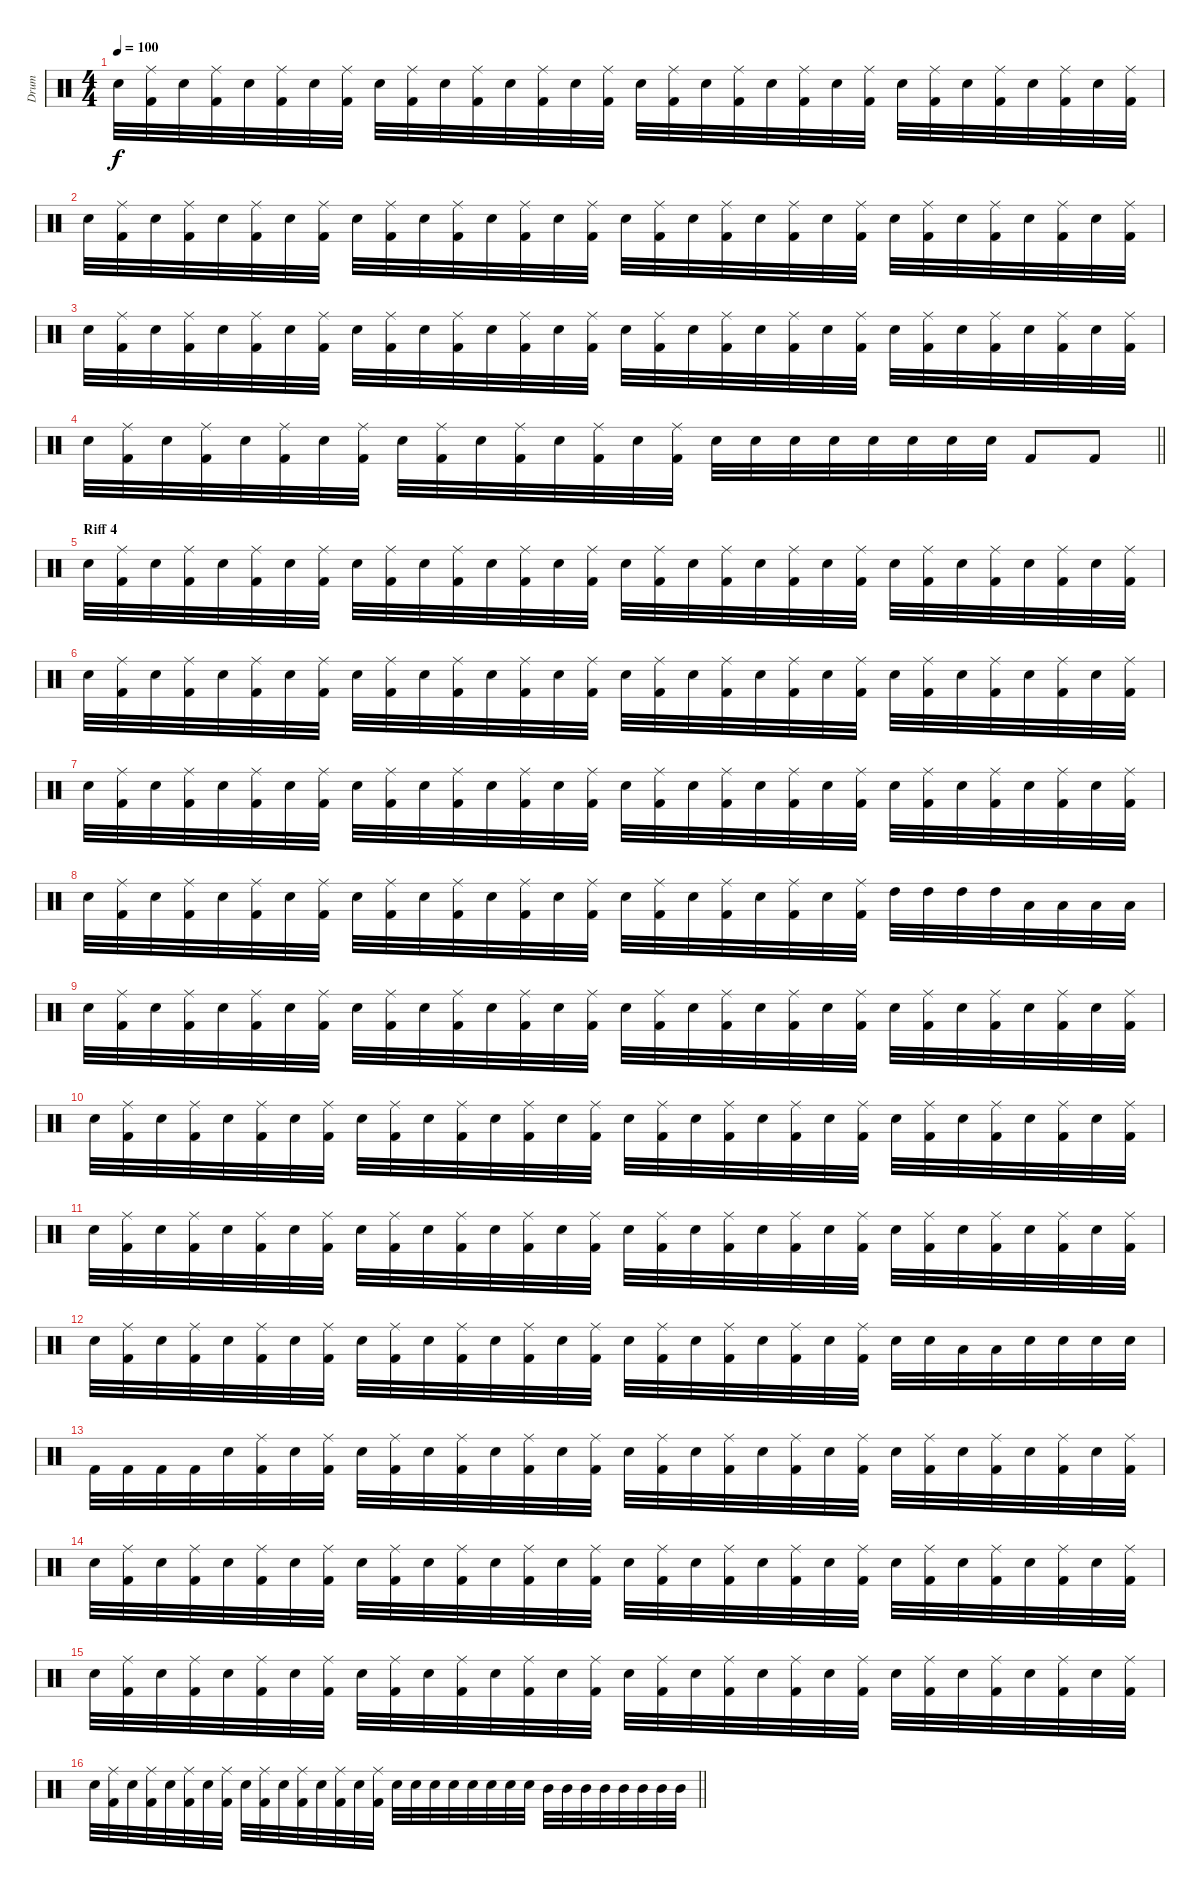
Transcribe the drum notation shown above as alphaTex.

\track ("Drum" "Drum") {instrument percussion}
\staff {score}
\articulation defaults
\ts (4 4)
\tempo 100
\clef neutral
\ks c "Electric Snare (hit)".32{dy f}
("Ride (middle)" "Kick (hit) 2").32 "Electric Snare (hit)".32 ("Ride (middle)" "Kick (hit) 2").32 "Electric Snare (hit)".32 ("Ride (middle)" "Kick (hit) 2").32 "Electric Snare (hit)".32 ("Ride (middle)" "Kick (hit) 2").32 "Electric Snare (hit)".32 ("Ride (middle)" "Kick (hit) 2").32 "Electric Snare (hit)".32 ("Ride (middle)" "Kick (hit) 2").32 "Electric Snare (hit)".32 ("Ride (middle)" "Kick (hit) 2").32 "Electric Snare (hit)".32 ("Ride (middle)" "Kick (hit) 2").32 "Electric Snare (hit)".32 ("Ride (middle)" "Kick (hit) 2").32 "Electric Snare (hit)".32 ("Ride (middle)" "Kick (hit) 2").32 "Electric Snare (hit)".32 ("Ride (middle)" "Kick (hit) 2").32 "Electric Snare (hit)".32 ("Ride (middle)" "Kick (hit) 2").32 "Electric Snare (hit)".32 ("Ride (middle)" "Kick (hit) 2").32 "Electric Snare (hit)".32 ("Ride (middle)" "Kick (hit) 2").32 "Electric Snare (hit)".32 ("Ride (middle)" "Kick (hit) 2").32 "Electric Snare (hit)".32 ("Ride (middle)" "Kick (hit) 2").32 |
"Electric Snare (hit)".32 ("Ride (middle)" "Kick (hit) 2").32 "Electric Snare (hit)".32 ("Ride (middle)" "Kick (hit) 2").32 "Electric Snare (hit)".32 ("Ride (middle)" "Kick (hit) 2").32 "Electric Snare (hit)".32 ("Ride (middle)" "Kick (hit) 2").32 "Electric Snare (hit)".32 ("Ride (middle)" "Kick (hit) 2").32 "Electric Snare (hit)".32 ("Ride (middle)" "Kick (hit) 2").32 "Electric Snare (hit)".32 ("Ride (middle)" "Kick (hit) 2").32 "Electric Snare (hit)".32 ("Ride (middle)" "Kick (hit) 2").32 "Electric Snare (hit)".32 ("Ride (middle)" "Kick (hit) 2").32 "Electric Snare (hit)".32 ("Ride (middle)" "Kick (hit) 2").32 "Electric Snare (hit)".32 ("Ride (middle)" "Kick (hit) 2").32 "Electric Snare (hit)".32 ("Ride (middle)" "Kick (hit) 2").32 "Electric Snare (hit)".32 ("Ride (middle)" "Kick (hit) 2").32 "Electric Snare (hit)".32 ("Ride (middle)" "Kick (hit) 2").32 "Electric Snare (hit)".32 ("Ride (middle)" "Kick (hit) 2").32 "Electric Snare (hit)".32 ("Ride (middle)" "Kick (hit) 2").32 |
"Electric Snare (hit)".32 ("Ride (middle)" "Kick (hit) 2").32 "Electric Snare (hit)".32 ("Ride (middle)" "Kick (hit) 2").32 "Electric Snare (hit)".32 ("Ride (middle)" "Kick (hit) 2").32 "Electric Snare (hit)".32 ("Ride (middle)" "Kick (hit) 2").32 "Electric Snare (hit)".32 ("Ride (middle)" "Kick (hit) 2").32 "Electric Snare (hit)".32 ("Ride (middle)" "Kick (hit) 2").32 "Electric Snare (hit)".32 ("Ride (middle)" "Kick (hit) 2").32 "Electric Snare (hit)".32 ("Ride (middle)" "Kick (hit) 2").32 "Electric Snare (hit)".32 ("Ride (middle)" "Kick (hit) 2").32 "Electric Snare (hit)".32 ("Ride (middle)" "Kick (hit) 2").32 "Electric Snare (hit)".32 ("Ride (middle)" "Kick (hit) 2").32 "Electric Snare (hit)".32 ("Ride (middle)" "Kick (hit) 2").32 "Electric Snare (hit)".32 ("Ride (middle)" "Kick (hit) 2").32 "Electric Snare (hit)".32 ("Ride (middle)" "Kick (hit) 2").32 "Electric Snare (hit)".32 ("Ride (middle)" "Kick (hit) 2").32 "Electric Snare (hit)".32 ("Ride (middle)" "Kick (hit) 2").32 |
\barLineRight lightlight "Electric Snare (hit)".32
("Ride (middle)" "Kick (hit) 2").32 "Electric Snare (hit)".32 ("Ride (middle)" "Kick (hit) 2").32 "Electric Snare (hit)".32 ("Ride (middle)" "Kick (hit) 2").32 "Electric Snare (hit)".32 ("Ride (middle)" "Kick (hit) 2").32 "Electric Snare (hit)".32 ("Ride (middle)" "Kick (hit) 2").32 "Electric Snare (hit)".32 ("Ride (middle)" "Kick (hit) 2").32 "Electric Snare (hit)".32 ("Ride (middle)" "Kick (hit) 2").32 "Electric Snare (hit)".32 ("Ride (middle)" "Kick (hit) 2").32 "Electric Snare (hit)".32 "Electric Snare (hit)".32 "Electric Snare (hit)".32 "Electric Snare (hit)".32 "Electric Snare (hit)".32 "Electric Snare (hit)".32 "Electric Snare (hit)".32 "Electric Snare (hit)".32 "Kick (hit) 2".8 "Kick (hit) 2".8 |
\section ("" "Riff 4")
"Electric Snare (hit)".32 ("Ride (middle)" "Kick (hit) 2").32 "Electric Snare (hit)".32 ("Ride (middle)" "Kick (hit) 2").32 "Electric Snare (hit)".32 ("Ride (middle)" "Kick (hit) 2").32 "Electric Snare (hit)".32 ("Ride (middle)" "Kick (hit) 2").32 "Electric Snare (hit)".32 ("Ride (middle)" "Kick (hit) 2").32 "Electric Snare (hit)".32 ("Ride (middle)" "Kick (hit) 2").32 "Electric Snare (hit)".32 ("Ride (middle)" "Kick (hit) 2").32 "Electric Snare (hit)".32 ("Ride (middle)" "Kick (hit) 2").32 "Electric Snare (hit)".32 ("Ride (middle)" "Kick (hit) 2").32 "Electric Snare (hit)".32 ("Ride (middle)" "Kick (hit) 2").32 "Electric Snare (hit)".32 ("Ride (middle)" "Kick (hit) 2").32 "Electric Snare (hit)".32 ("Ride (middle)" "Kick (hit) 2").32 "Electric Snare (hit)".32 ("Ride (middle)" "Kick (hit) 2").32 "Electric Snare (hit)".32 ("Ride (middle)" "Kick (hit) 2").32 "Electric Snare (hit)".32 ("Ride (middle)" "Kick (hit) 2").32 "Electric Snare (hit)".32 ("Ride (middle)" "Kick (hit) 2").32 |
"Electric Snare (hit)".32 ("Ride (middle)" "Kick (hit) 2").32 "Electric Snare (hit)".32 ("Ride (middle)" "Kick (hit) 2").32 "Electric Snare (hit)".32 ("Ride (middle)" "Kick (hit) 2").32 "Electric Snare (hit)".32 ("Ride (middle)" "Kick (hit) 2").32 "Electric Snare (hit)".32 ("Ride (middle)" "Kick (hit) 2").32 "Electric Snare (hit)".32 ("Ride (middle)" "Kick (hit) 2").32 "Electric Snare (hit)".32 ("Ride (middle)" "Kick (hit) 2").32 "Electric Snare (hit)".32 ("Ride (middle)" "Kick (hit) 2").32 "Electric Snare (hit)".32 ("Ride (middle)" "Kick (hit) 2").32 "Electric Snare (hit)".32 ("Ride (middle)" "Kick (hit) 2").32 "Electric Snare (hit)".32 ("Ride (middle)" "Kick (hit) 2").32 "Electric Snare (hit)".32 ("Ride (middle)" "Kick (hit) 2").32 "Electric Snare (hit)".32 ("Ride (middle)" "Kick (hit) 2").32 "Electric Snare (hit)".32 ("Ride (middle)" "Kick (hit) 2").32 "Electric Snare (hit)".32 ("Ride (middle)" "Kick (hit) 2").32 "Electric Snare (hit)".32 ("Ride (middle)" "Kick (hit) 2").32 |
"Electric Snare (hit)".32 ("Ride (middle)" "Kick (hit) 2").32 "Electric Snare (hit)".32 ("Ride (middle)" "Kick (hit) 2").32 "Electric Snare (hit)".32 ("Ride (middle)" "Kick (hit) 2").32 "Electric Snare (hit)".32 ("Ride (middle)" "Kick (hit) 2").32 "Electric Snare (hit)".32 ("Ride (middle)" "Kick (hit) 2").32 "Electric Snare (hit)".32 ("Ride (middle)" "Kick (hit) 2").32 "Electric Snare (hit)".32 ("Ride (middle)" "Kick (hit) 2").32 "Electric Snare (hit)".32 ("Ride (middle)" "Kick (hit) 2").32 "Electric Snare (hit)".32 ("Ride (middle)" "Kick (hit) 2").32 "Electric Snare (hit)".32 ("Ride (middle)" "Kick (hit) 2").32 "Electric Snare (hit)".32 ("Ride (middle)" "Kick (hit) 2").32 "Electric Snare (hit)".32 ("Ride (middle)" "Kick (hit) 2").32 "Electric Snare (hit)".32 ("Ride (middle)" "Kick (hit) 2").32 "Electric Snare (hit)".32 ("Ride (middle)" "Kick (hit) 2").32 "Electric Snare (hit)".32 ("Ride (middle)" "Kick (hit) 2").32 "Electric Snare (hit)".32 ("Ride (middle)" "Kick (hit) 2").32 |
"Electric Snare (hit)".32 ("Ride (middle)" "Kick (hit) 2").32 "Electric Snare (hit)".32 ("Ride (middle)" "Kick (hit) 2").32 "Electric Snare (hit)".32 ("Ride (middle)" "Kick (hit) 2").32 "Electric Snare (hit)".32 ("Ride (middle)" "Kick (hit) 2").32 "Electric Snare (hit)".32 ("Ride (middle)" "Kick (hit) 2").32 "Electric Snare (hit)".32 ("Ride (middle)" "Kick (hit) 2").32 "Electric Snare (hit)".32 ("Ride (middle)" "Kick (hit) 2").32 "Electric Snare (hit)".32 ("Ride (middle)" "Kick (hit) 2").32 "Electric Snare (hit)".32 ("Ride (middle)" "Kick (hit) 2").32 "Electric Snare (hit)".32 ("Ride (middle)" "Kick (hit) 2").32 "Electric Snare (hit)".32 ("Ride (middle)" "Kick (hit) 2").32 "Electric Snare (hit)".32 ("Ride (middle)" "Kick (hit) 2").32 "High Tom (hit)".32 "High Tom (hit)".32 "High Tom (hit)".32 "High Tom (hit)".32 "Low Tom (hit)".32 "Low Tom (hit)".32 "Low Tom (hit)".32 "Low Tom (hit)".32 |
"Electric Snare (hit)".32 ("Ride (middle)" "Kick (hit) 2").32 "Electric Snare (hit)".32 ("Ride (middle)" "Kick (hit) 2").32 "Electric Snare (hit)".32 ("Ride (middle)" "Kick (hit) 2").32 "Electric Snare (hit)".32 ("Ride (middle)" "Kick (hit) 2").32 "Electric Snare (hit)".32 ("Ride (middle)" "Kick (hit) 2").32 "Electric Snare (hit)".32 ("Ride (middle)" "Kick (hit) 2").32 "Electric Snare (hit)".32 ("Ride (middle)" "Kick (hit) 2").32 "Electric Snare (hit)".32 ("Ride (middle)" "Kick (hit) 2").32 "Electric Snare (hit)".32 ("Ride (middle)" "Kick (hit) 2").32 "Electric Snare (hit)".32 ("Ride (middle)" "Kick (hit) 2").32 "Electric Snare (hit)".32 ("Ride (middle)" "Kick (hit) 2").32 "Electric Snare (hit)".32 ("Ride (middle)" "Kick (hit) 2").32 "Electric Snare (hit)".32 ("Ride (middle)" "Kick (hit) 2").32 "Electric Snare (hit)".32 ("Ride (middle)" "Kick (hit) 2").32 "Electric Snare (hit)".32 ("Ride (middle)" "Kick (hit) 2").32 "Electric Snare (hit)".32 ("Ride (middle)" "Kick (hit) 2").32 |
"Electric Snare (hit)".32 ("Ride (middle)" "Kick (hit) 2").32 "Electric Snare (hit)".32 ("Ride (middle)" "Kick (hit) 2").32 "Electric Snare (hit)".32 ("Ride (middle)" "Kick (hit) 2").32 "Electric Snare (hit)".32 ("Ride (middle)" "Kick (hit) 2").32 "Electric Snare (hit)".32 ("Ride (middle)" "Kick (hit) 2").32 "Electric Snare (hit)".32 ("Ride (middle)" "Kick (hit) 2").32 "Electric Snare (hit)".32 ("Ride (middle)" "Kick (hit) 2").32 "Electric Snare (hit)".32 ("Ride (middle)" "Kick (hit) 2").32 "Electric Snare (hit)".32 ("Ride (middle)" "Kick (hit) 2").32 "Electric Snare (hit)".32 ("Ride (middle)" "Kick (hit) 2").32 "Electric Snare (hit)".32 ("Ride (middle)" "Kick (hit) 2").32 "Electric Snare (hit)".32 ("Ride (middle)" "Kick (hit) 2").32 "Electric Snare (hit)".32 ("Ride (middle)" "Kick (hit) 2").32 "Electric Snare (hit)".32 ("Ride (middle)" "Kick (hit) 2").32 "Electric Snare (hit)".32 ("Ride (middle)" "Kick (hit) 2").32 "Electric Snare (hit)".32 ("Ride (middle)" "Kick (hit) 2").32 |
"Electric Snare (hit)".32 ("Ride (middle)" "Kick (hit) 2").32 "Electric Snare (hit)".32 ("Ride (middle)" "Kick (hit) 2").32 "Electric Snare (hit)".32 ("Ride (middle)" "Kick (hit) 2").32 "Electric Snare (hit)".32 ("Ride (middle)" "Kick (hit) 2").32 "Electric Snare (hit)".32 ("Ride (middle)" "Kick (hit) 2").32 "Electric Snare (hit)".32 ("Ride (middle)" "Kick (hit) 2").32 "Electric Snare (hit)".32 ("Ride (middle)" "Kick (hit) 2").32 "Electric Snare (hit)".32 ("Ride (middle)" "Kick (hit) 2").32 "Electric Snare (hit)".32 ("Ride (middle)" "Kick (hit) 2").32 "Electric Snare (hit)".32 ("Ride (middle)" "Kick (hit) 2").32 "Electric Snare (hit)".32 ("Ride (middle)" "Kick (hit) 2").32 "Electric Snare (hit)".32 ("Ride (middle)" "Kick (hit) 2").32 "Electric Snare (hit)".32 ("Ride (middle)" "Kick (hit) 2").32 "Electric Snare (hit)".32 ("Ride (middle)" "Kick (hit) 2").32 "Electric Snare (hit)".32 ("Ride (middle)" "Kick (hit) 2").32 "Electric Snare (hit)".32 ("Ride (middle)" "Kick (hit) 2").32 |
"Electric Snare (hit)".32 ("Ride (middle)" "Kick (hit) 2").32 "Electric Snare (hit)".32 ("Ride (middle)" "Kick (hit) 2").32 "Electric Snare (hit)".32 ("Ride (middle)" "Kick (hit) 2").32 "Electric Snare (hit)".32 ("Ride (middle)" "Kick (hit) 2").32 "Electric Snare (hit)".32 ("Ride (middle)" "Kick (hit) 2").32 "Electric Snare (hit)".32 ("Ride (middle)" "Kick (hit) 2").32 "Electric Snare (hit)".32 ("Ride (middle)" "Kick (hit) 2").32 "Electric Snare (hit)".32 ("Ride (middle)" "Kick (hit) 2").32 "Electric Snare (hit)".32 ("Ride (middle)" "Kick (hit) 2").32 "Electric Snare (hit)".32 ("Ride (middle)" "Kick (hit) 2").32 "Electric Snare (hit)".32 ("Ride (middle)" "Kick (hit) 2").32 "Electric Snare (hit)".32 ("Ride (middle)" "Kick (hit) 2").32 "Electric Snare (hit)".32 "Electric Snare (hit)".32 "Low Tom (hit)".32 "Low Tom (hit)".32 "Electric Snare (hit)".32 "Electric Snare (hit)".32 "Electric Snare (hit)".32 "Electric Snare (hit)".32 |
"Kick (hit) 2".32 "Kick (hit) 2".32 "Kick (hit) 2".32 "Kick (hit) 2".32 "Electric Snare (hit)".32 ("Ride (middle)" "Kick (hit) 2").32 "Electric Snare (hit)".32 ("Ride (middle)" "Kick (hit) 2").32 "Electric Snare (hit)".32 ("Ride (middle)" "Kick (hit) 2").32 "Electric Snare (hit)".32 ("Ride (middle)" "Kick (hit) 2").32 "Electric Snare (hit)".32 ("Ride (middle)" "Kick (hit) 2").32 "Electric Snare (hit)".32 ("Ride (middle)" "Kick (hit) 2").32 "Electric Snare (hit)".32 ("Ride (middle)" "Kick (hit) 2").32 "Electric Snare (hit)".32 ("Ride (middle)" "Kick (hit) 2").32 "Electric Snare (hit)".32 ("Ride (middle)" "Kick (hit) 2").32 "Electric Snare (hit)".32 ("Ride (middle)" "Kick (hit) 2").32 "Electric Snare (hit)".32 ("Ride (middle)" "Kick (hit) 2").32 "Electric Snare (hit)".32 ("Ride (middle)" "Kick (hit) 2").32 "Electric Snare (hit)".32 ("Ride (middle)" "Kick (hit) 2").32 "Electric Snare (hit)".32 ("Ride (middle)" "Kick (hit) 2").32 |
"Electric Snare (hit)".32 ("Ride (middle)" "Kick (hit) 2").32 "Electric Snare (hit)".32 ("Ride (middle)" "Kick (hit) 2").32 "Electric Snare (hit)".32 ("Ride (middle)" "Kick (hit) 2").32 "Electric Snare (hit)".32 ("Ride (middle)" "Kick (hit) 2").32 "Electric Snare (hit)".32 ("Ride (middle)" "Kick (hit) 2").32 "Electric Snare (hit)".32 ("Ride (middle)" "Kick (hit) 2").32 "Electric Snare (hit)".32 ("Ride (middle)" "Kick (hit) 2").32 "Electric Snare (hit)".32 ("Ride (middle)" "Kick (hit) 2").32 "Electric Snare (hit)".32 ("Ride (middle)" "Kick (hit) 2").32 "Electric Snare (hit)".32 ("Ride (middle)" "Kick (hit) 2").32 "Electric Snare (hit)".32 ("Ride (middle)" "Kick (hit) 2").32 "Electric Snare (hit)".32 ("Ride (middle)" "Kick (hit) 2").32 "Electric Snare (hit)".32 ("Ride (middle)" "Kick (hit) 2").32 "Electric Snare (hit)".32 ("Ride (middle)" "Kick (hit) 2").32 "Electric Snare (hit)".32 ("Ride (middle)" "Kick (hit) 2").32 "Electric Snare (hit)".32 ("Ride (middle)" "Kick (hit) 2").32 |
"Electric Snare (hit)".32 ("Ride (middle)" "Kick (hit) 2").32 "Electric Snare (hit)".32 ("Ride (middle)" "Kick (hit) 2").32 "Electric Snare (hit)".32 ("Ride (middle)" "Kick (hit) 2").32 "Electric Snare (hit)".32 ("Ride (middle)" "Kick (hit) 2").32 "Electric Snare (hit)".32 ("Ride (middle)" "Kick (hit) 2").32 "Electric Snare (hit)".32 ("Ride (middle)" "Kick (hit) 2").32 "Electric Snare (hit)".32 ("Ride (middle)" "Kick (hit) 2").32 "Electric Snare (hit)".32 ("Ride (middle)" "Kick (hit) 2").32 "Electric Snare (hit)".32 ("Ride (middle)" "Kick (hit) 2").32 "Electric Snare (hit)".32 ("Ride (middle)" "Kick (hit) 2").32 "Electric Snare (hit)".32 ("Ride (middle)" "Kick (hit) 2").32 "Electric Snare (hit)".32 ("Ride (middle)" "Kick (hit) 2").32 "Electric Snare (hit)".32 ("Ride (middle)" "Kick (hit) 2").32 "Electric Snare (hit)".32 ("Ride (middle)" "Kick (hit) 2").32 "Electric Snare (hit)".32 ("Ride (middle)" "Kick (hit) 2").32 "Electric Snare (hit)".32 ("Ride (middle)" "Kick (hit) 2").32 |
\barLineRight lightlight "Electric Snare (hit)".32
("Ride (middle)" "Kick (hit) 2").32 "Electric Snare (hit)".32 ("Ride (middle)" "Kick (hit) 2").32 "Electric Snare (hit)".32 ("Ride (middle)" "Kick (hit) 2").32 "Electric Snare (hit)".32 ("Ride (middle)" "Kick (hit) 2").32 "Electric Snare (hit)".32 ("Ride (middle)" "Kick (hit) 2").32 "Electric Snare (hit)".32 ("Ride (middle)" "Kick (hit) 2").32 "Electric Snare (hit)".32 ("Ride (middle)" "Kick (hit) 2").32 "Electric Snare (hit)".32 ("Ride (middle)" "Kick (hit) 2").32 "Electric Snare (hit)".32 "Electric Snare (hit)".32 "Electric Snare (hit)".32 "Electric Snare (hit)".32 "Electric Snare (hit)".32 "Electric Snare (hit)".32 "Electric Snare (hit)".32 "Electric Snare (hit)".32 "Mid Tom (hit)".32 "Mid Tom (hit)".32 "Mid Tom (hit)".32 "Mid Tom (hit)".32 "Mid Tom (hit)".32 "Mid Tom (hit)".32 "Mid Tom (hit)".32 "Mid Tom (hit)".32
